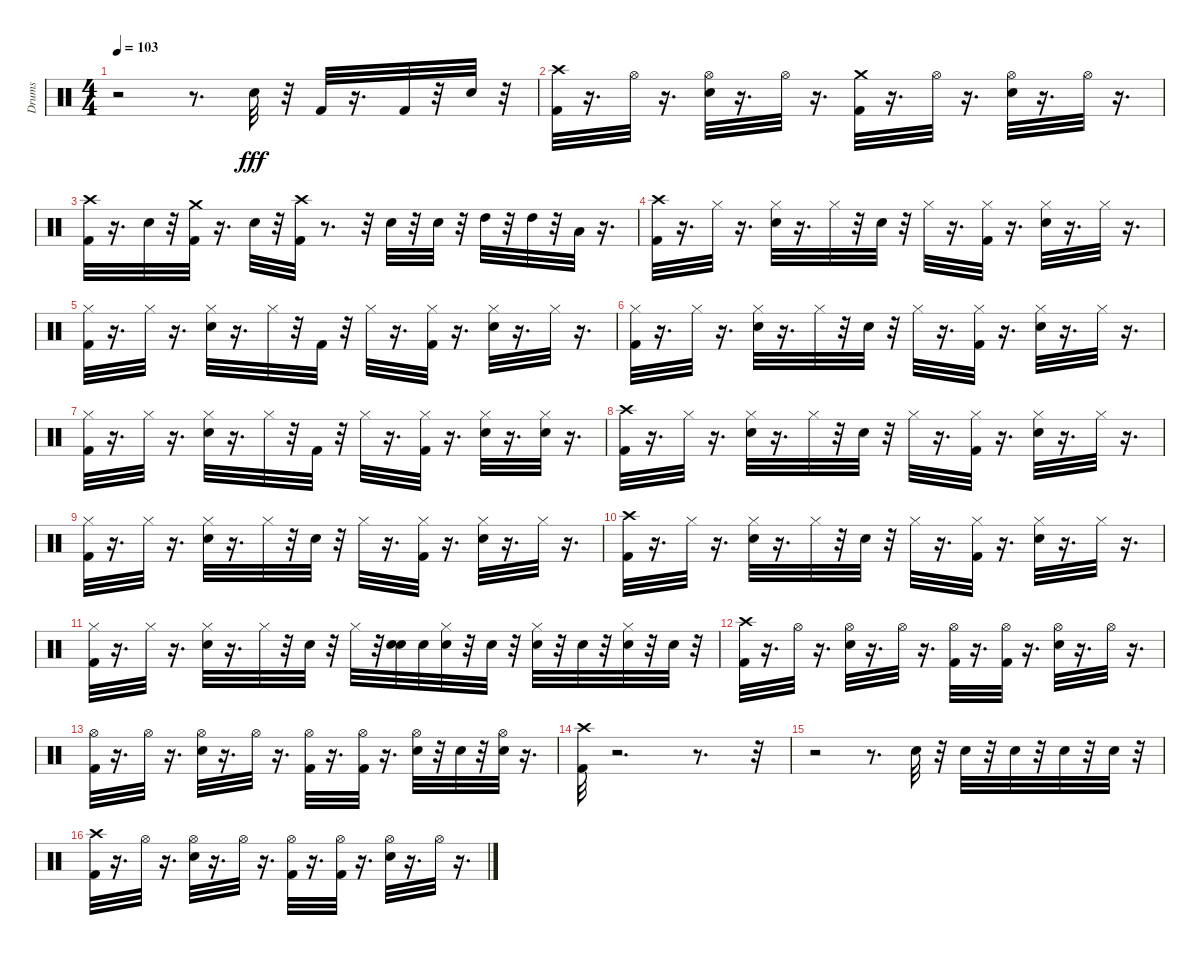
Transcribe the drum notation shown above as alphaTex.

\track ("Drums" "Drums") {instrument percussion}
\staff {score}
\articulation defaults
\ts (4 4)
\tempo 103
\clef neutral
\ks c
r.2{dy fff} r.8{d} "Electric Snare (hit)".32 r.32 "Kick (hit) 2".32 r.16{d} "Kick (hit) 2".32 r.32 "Electric Snare (hit)".32 r.32 |
("Crash high (hit)" "Kick (hit) 2").32 r.16{d} "Hi-Hat (open)".32 r.16{d} ("Hi-Hat (open)" "Electric Snare (hit)").32 r.16{d} "Hi-Hat (open)".32 r.16{d} ("Crash medium (hit)" "Kick (hit) 2").32 r.16{d} "Hi-Hat (open)".32 r.16{d} ("Hi-Hat (open)" "Electric Snare (hit)").32 r.16{d} "Hi-Hat (open)".32 r.16{d} |
("Crash high (hit)" "Kick (hit) 2").32 r.16{d} "Electric Snare (hit)".32 r.32 ("Crash medium (hit)" "Kick (hit) 2").32 r.16{d} "Electric Snare (hit)".32 r.32 ("Kick (hit) 2" "Crash high (hit)").32 r.8{d} r.32 "Electric Snare (hit)".32 r.32 "Electric Snare (hit)".32 r.32 "High Tom (hit)".32 r.32 "High Tom (hit)".32 r.32 "Low Tom (hit)".32 r.16{d} |
("Crash high (hit)" "Kick (hit) 2").32 r.16{d} "Hi-Hat (closed)".32 r.16{d} ("Electric Snare (hit)" "Hi-Hat (closed)").32 r.16{d} "Hi-Hat (closed)".32 r.32 "Electric Snare (hit)".32 r.32 "Hi-Hat (closed)".32 r.16{d} ("Hi-Hat (closed)" "Kick (hit) 2").32 r.16{d} ("Electric Snare (hit)" "Hi-Hat (closed)").32 r.16{d} "Hi-Hat (closed)".32 r.16{d} |
("Hi-Hat (closed)" "Kick (hit) 2").32 r.16{d} "Hi-Hat (closed)".32 r.16{d} ("Electric Snare (hit)" "Hi-Hat (closed)").32 r.16{d} "Hi-Hat (closed)".32 r.32 "Kick (hit) 2".32 r.32 "Hi-Hat (closed)".32 r.16{d} ("Hi-Hat (closed)" "Kick (hit) 2").32 r.16{d} ("Hi-Hat (closed)" "Electric Snare (hit)").32 r.16{d} "Hi-Hat (closed)".32 r.16{d} |
("Hi-Hat (closed)" "Kick (hit) 2").32 r.16{d} "Hi-Hat (closed)".32 r.16{d} ("Electric Snare (hit)" "Hi-Hat (closed)").32 r.16{d} "Hi-Hat (closed)".32 r.32 "Electric Snare (hit)".32 r.32 "Hi-Hat (closed)".32 r.16{d} ("Hi-Hat (closed)" "Kick (hit) 2").32 r.16{d} ("Hi-Hat (closed)" "Electric Snare (hit)").32 r.16{d} "Hi-Hat (closed)".32 r.16{d} |
("Kick (hit) 2" "Hi-Hat (closed)").32 r.16{d} "Hi-Hat (closed)".32 r.16{d} ("Hi-Hat (closed)" "Electric Snare (hit)").32 r.16{d} "Hi-Hat (closed)".32 r.32 "Kick (hit) 2".32 r.32 "Hi-Hat (closed)".32 r.16{d} ("Hi-Hat (closed)" "Kick (hit) 2").32 r.16{d} ("Hi-Hat (closed)" "Electric Snare (hit)").32 r.16{d} ("Electric Snare (hit)" "Hi-Hat (closed)").32 r.16{d} |
("Crash high (hit)" "Kick (hit) 2").32 r.16{d} "Hi-Hat (closed)".32 r.16{d} ("Hi-Hat (closed)" "Electric Snare (hit)").32 r.16{d} "Hi-Hat (closed)".32 r.32 "Electric Snare (hit)".32 r.32 "Hi-Hat (closed)".32 r.16{d} ("Hi-Hat (closed)" "Kick (hit) 2").32 r.16{d} ("Electric Snare (hit)" "Hi-Hat (closed)").32 r.16{d} "Hi-Hat (closed)".32 r.16{d} |
("Kick (hit) 2" "Hi-Hat (closed)").32 r.16{d} "Hi-Hat (closed)".32 r.16{d} ("Hi-Hat (closed)" "Electric Snare (hit)").32 r.16{d} "Hi-Hat (closed)".32 r.32 "Electric Snare (hit)".32 r.32 "Hi-Hat (closed)".32 r.16{d} ("Kick (hit) 2" "Hi-Hat (closed)").32 r.16{d} ("Electric Snare (hit)" "Hi-Hat (closed)").32 r.16{d} "Hi-Hat (closed)".32 r.16{d} |
("Kick (hit) 2" "Crash high (hit)").32 r.16{d} "Hi-Hat (closed)".32 r.16{d} ("Electric Snare (hit)" "Hi-Hat (closed)").32 r.16{d} "Hi-Hat (closed)".32 r.32 "Electric Snare (hit)".32 r.32 "Hi-Hat (closed)".32 r.16{d} ("Kick (hit) 2" "Hi-Hat (closed)").32 r.16{d} ("Electric Snare (hit)" "Hi-Hat (closed)").32 r.16{d} "Hi-Hat (closed)".32 r.16{d} |
("Hi-Hat (closed)" "Kick (hit) 2").32 r.16{d} "Hi-Hat (closed)".32 r.16{d} ("Hi-Hat (closed)" "Electric Snare (hit)").32 r.16{d} "Hi-Hat (closed)".32 r.32 "Electric Snare (hit)".32 r.32 "Hi-Hat (closed)".32 r.32 ("Electric Snare (hit)" "Electric Snare (hit)").32 "Electric Snare (hit)".32 ("Hi-Hat (closed)" "Electric Snare (hit)").32 r.32 "Electric Snare (hit)".32 r.32 ("Electric Snare (hit)" "Hi-Hat (closed)").32 r.32 "Electric Snare (hit)".32 r.32 ("Hi-Hat (closed)" "Electric Snare (hit)").32 r.32 "Electric Snare (hit)".32 r.32 |
("Kick (hit) 2" "Crash high (hit)").32 r.16{d} "Hi-Hat (open)".32 r.16{d} ("Electric Snare (hit)" "Hi-Hat (open)").32 r.16{d} "Hi-Hat (open)".32 r.16{d} ("Kick (hit) 2" "Hi-Hat (open)").32 r.16{d} ("Hi-Hat (open)" "Kick (hit) 2").32 r.16{d} ("Hi-Hat (open)" "Electric Snare (hit)").32 r.16{d} "Hi-Hat (open)".32 r.16{d} |
("Kick (hit) 2" "Hi-Hat (open)").32 r.16{d} "Hi-Hat (open)".32 r.16{d} ("Electric Snare (hit)" "Hi-Hat (open)").32 r.16{d} "Hi-Hat (open)".32 r.16{d} ("Kick (hit) 2" "Hi-Hat (open)").32 r.16{d} ("Kick (hit) 2" "Hi-Hat (open)").32 r.16{d} ("Hi-Hat (open)" "Electric Snare (hit)").32 r.32 "Electric Snare (hit)".32 r.32 ("Electric Snare (hit)" "Hi-Hat (open)").32 r.16{d} |
("Crash high (hit)" "Kick (hit) 2").32 r.2{d} r.8{d} r.32 |
r.2 r.8{d} "Electric Snare (hit)".32 r.32 "Electric Snare (hit)".32 r.32 "Electric Snare (hit)".32 r.32 "Electric Snare (hit)".32 r.32 "Electric Snare (hit)".32 r.32 |
("Kick (hit) 2" "Crash high (hit)").32 r.16{d} "Hi-Hat (open)".32 r.16{d} ("Electric Snare (hit)" "Hi-Hat (open)").32 r.16{d} "Hi-Hat (open)".32 r.16{d} ("Hi-Hat (open)" "Kick (hit) 2").32 r.16{d} ("Kick (hit) 2" "Hi-Hat (open)").32 r.16{d} ("Electric Snare (hit)" "Hi-Hat (open)").32 r.16{d} "Hi-Hat (open)".32 r.16{d}
